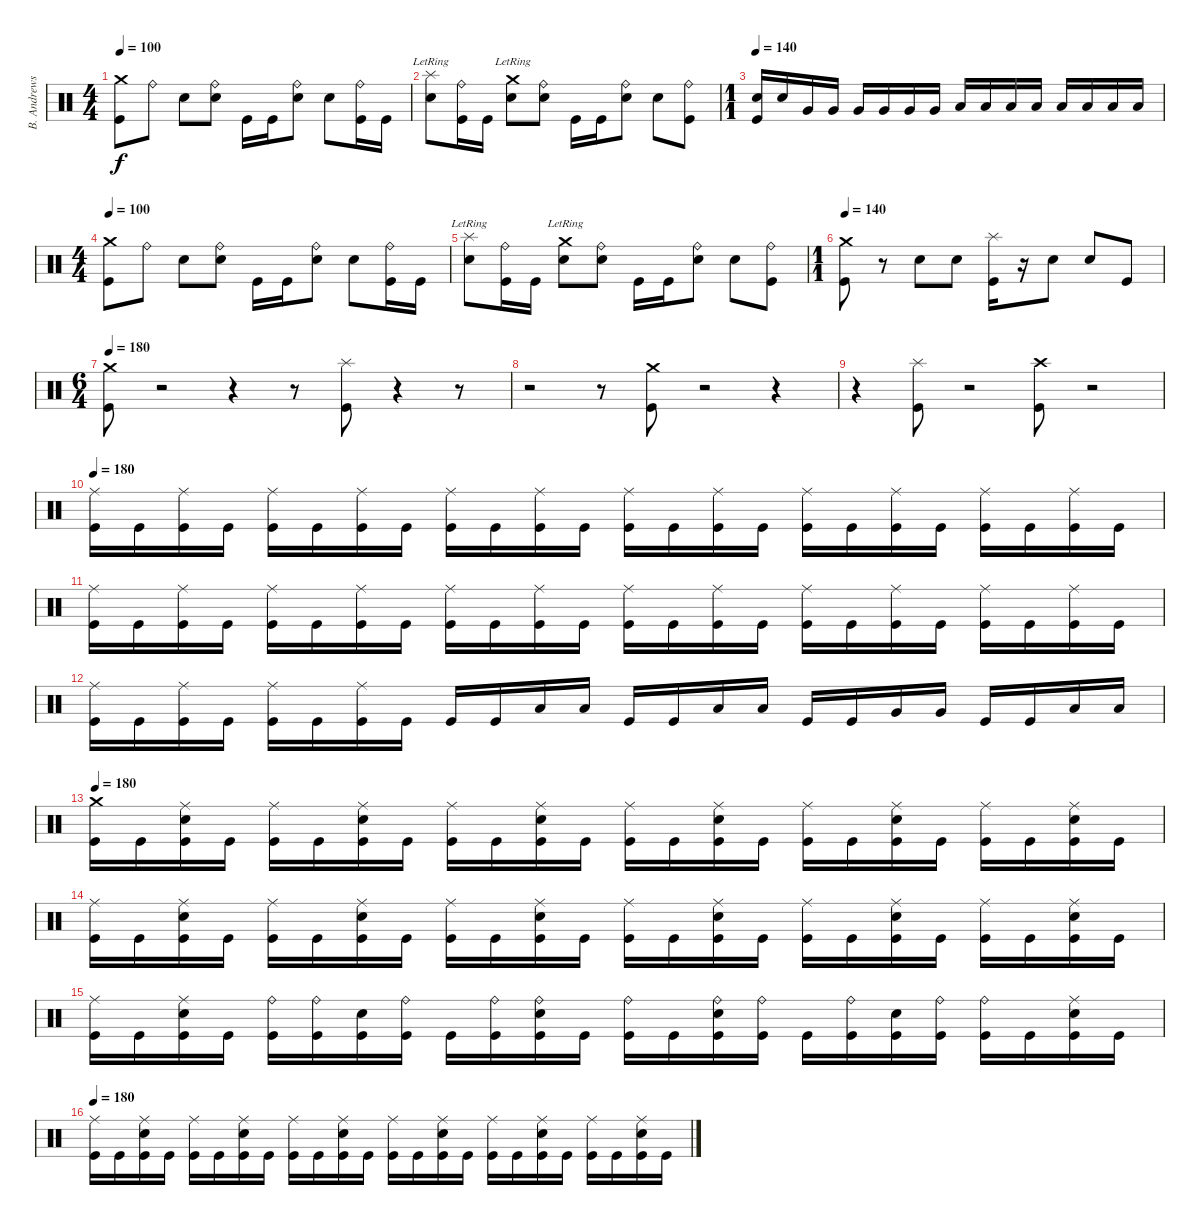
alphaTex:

\track ("B. Andrews" "B. Andrews") {instrument percussion}
\staff {score}
\articulation defaults
\ts (4 4)
\tempo 80
\tempo 100
\clef neutral
\ks c
("Crash medium (hit)" "Kick (hit)").8{dy f} "Ride (bell)".8 "Electric Snare (hit)".8 ("Ride (bell)" "Electric Snare (hit)").8 "Kick (hit)".16 "Kick (hit)".16 ("Ride (bell)" "Electric Snare (hit)").8 "Electric Snare (hit)".8 ("Ride (bell)" "Kick (hit)").16 "Kick (hit)".16 |
("Splash (hit)"{lr} "Electric Snare (hit)").8 ("Ride (bell)" "Kick (hit)").16 "Kick (hit)".16 ("Crash medium (hit)"{lr} "Electric Snare (hit)").8 ("Ride (bell)" "Electric Snare (hit)").8 "Kick (hit)".16 "Kick (hit)".16 ("Ride (bell)" "Electric Snare (hit)").8 "Electric Snare (hit)".8 ("Ride (bell)" "Kick (hit)").8 |
\ts (1 1)
\tempo 140
("Electric Snare (hit)" "Kick (hit)").16 "Electric Snare (hit)".16 "Very Low Tom (hit)".16 "Very Low Tom (hit)".16 "Very Low Tom (hit)".16 "Very Low Tom (hit)".16 "Very Low Tom (hit)".16 "Very Low Tom (hit)".16 "Low Floor Tom (hit)".16 "Low Floor Tom (hit)".16 "Low Floor Tom (hit)".16 "Low Floor Tom (hit)".16 "Low Floor Tom (hit)".16 "Low Floor Tom (hit)".16 "Low Floor Tom (hit)".16 "Low Floor Tom (hit)".16 |
\ts (4 4)
\tempo 80
\tempo 100
("Crash medium (hit)" "Kick (hit)").8 "Ride (bell)".8 "Electric Snare (hit)".8 ("Ride (bell)" "Electric Snare (hit)").8 "Kick (hit)".16 "Kick (hit)".16 ("Ride (bell)" "Electric Snare (hit)").8 "Electric Snare (hit)".8 ("Ride (bell)" "Kick (hit)").16 "Kick (hit)".16 |
("Splash (hit)"{lr} "Electric Snare (hit)").8 ("Ride (bell)" "Kick (hit)").16 "Kick (hit)".16 ("Crash medium (hit)"{lr} "Electric Snare (hit)").8 ("Ride (bell)" "Electric Snare (hit)").8 "Kick (hit)".16 "Kick (hit)".16 ("Ride (bell)" "Electric Snare (hit)").8 "Electric Snare (hit)".8 ("Ride (bell)" "Kick (hit)").8 |
\ts (1 1)
\tempo 140
("Crash medium (hit)" "Kick (hit)").8 r.8 "Electric Snare (hit)".8 "Electric Snare (hit)".8 ("Splash (hit)" "Kick (hit)").16 r.16 "Electric Snare (hit)".8 "Electric Snare (hit)".8 "Kick (hit)".8 |
\ts (6 4)
\tempo 200
\tempo 180
("Crash medium (hit)" "Kick (hit)").8 r.2 r.4 r.8 ("Splash (hit)" "Kick (hit)").8 r.4 r.8 |
r.2 r.8 ("Crash medium (hit)" "Kick (hit)").8 r.2 r.4 |
r.4 ("Splash (hit)" "Kick (hit)").8 r.2 ("Crash high (hit)" "Kick (hit)").8 r.2 |
\tempo 180
("Ride (middle)" "Kick (hit)").16 "Kick (hit)".16 ("Ride (middle)" "Kick (hit)").16 "Kick (hit)".16 ("Ride (middle)" "Kick (hit)").16 "Kick (hit)".16 ("Ride (middle)" "Kick (hit)").16 "Kick (hit)".16 ("Ride (middle)" "Kick (hit)").16 "Kick (hit)".16 ("Ride (middle)" "Kick (hit)").16 "Kick (hit)".16 ("Ride (middle)" "Kick (hit)").16 "Kick (hit)".16 ("Ride (middle)" "Kick (hit)").16 "Kick (hit)".16 ("Ride (middle)" "Kick (hit)").16 "Kick (hit)".16 ("Ride (middle)" "Kick (hit)").16 "Kick (hit)".16 ("Ride (middle)" "Kick (hit)").16 "Kick (hit)".16 ("Ride (middle)" "Kick (hit)").16 "Kick (hit)".16 |
("Ride (middle)" "Kick (hit)").16 "Kick (hit)".16 ("Ride (middle)" "Kick (hit)").16 "Kick (hit)".16 ("Ride (middle)" "Kick (hit)").16 "Kick (hit)".16 ("Ride (middle)" "Kick (hit)").16 "Kick (hit)".16 ("Ride (middle)" "Kick (hit)").16 "Kick (hit)".16 ("Ride (middle)" "Kick (hit)").16 "Kick (hit)".16 ("Ride (middle)" "Kick (hit)").16 "Kick (hit)".16 ("Ride (middle)" "Kick (hit)").16 "Kick (hit)".16 ("Ride (middle)" "Kick (hit)").16 "Kick (hit)".16 ("Ride (middle)" "Kick (hit)").16 "Kick (hit)".16 ("Ride (middle)" "Kick (hit)").16 "Kick (hit)".16 ("Ride (middle)" "Kick (hit)").16 "Kick (hit)".16 |
("Ride (middle)" "Kick (hit)").16 "Kick (hit)".16 ("Ride (middle)" "Kick (hit)").16 "Kick (hit)".16 ("Ride (middle)" "Kick (hit)").16 "Kick (hit)".16 ("Ride (middle)" "Kick (hit)").16 "Kick (hit)".16 "Kick (hit)".16 "Kick (hit)".16 "Low Tom (hit)".16 "Low Tom (hit)".16 "Kick (hit)".16 "Kick (hit)".16 "Low Tom (hit)".16 "Low Tom (hit)".16 "Kick (hit)".16 "Kick (hit)".16 "Very Low Tom (hit)".16 "Very Low Tom (hit)".16 "Kick (hit)".16 "Kick (hit)".16 "Low Floor Tom (hit)".16 "Low Floor Tom (hit)".16 |
\tempo 180
("Crash medium (hit)" "Kick (hit)").16 "Kick (hit)".16 ("Ride (middle)" "Electric Snare (hit)" "Kick (hit)").16 "Kick (hit)".16 ("Ride (middle)" "Kick (hit)").16 "Kick (hit)".16 ("Ride (middle)" "Electric Snare (hit)" "Kick (hit)").16 "Kick (hit)".16 ("Ride (middle)" "Kick (hit)").16 "Kick (hit)".16 ("Ride (middle)" "Electric Snare (hit)" "Kick (hit)").16 "Kick (hit)".16 ("Ride (middle)" "Kick (hit)").16 "Kick (hit)".16 ("Ride (middle)" "Electric Snare (hit)" "Kick (hit)").16 "Kick (hit)".16 ("Ride (middle)" "Kick (hit)").16 "Kick (hit)".16 ("Ride (middle)" "Electric Snare (hit)" "Kick (hit)").16 "Kick (hit)".16 ("Ride (middle)" "Kick (hit)").16 "Kick (hit)".16 ("Ride (middle)" "Electric Snare (hit)" "Kick (hit)").16 "Kick (hit)".16 |
("Ride (middle)" "Kick (hit)").16 "Kick (hit)".16 ("Ride (middle)" "Electric Snare (hit)" "Kick (hit)").16 "Kick (hit)".16 ("Ride (middle)" "Kick (hit)").16 "Kick (hit)".16 ("Ride (middle)" "Electric Snare (hit)" "Kick (hit)").16 "Kick (hit)".16 ("Ride (middle)" "Kick (hit)").16 "Kick (hit)".16 ("Ride (middle)" "Electric Snare (hit)" "Kick (hit)").16 "Kick (hit)".16 ("Ride (middle)" "Kick (hit)").16 "Kick (hit)".16 ("Ride (middle)" "Electric Snare (hit)" "Kick (hit)").16 "Kick (hit)".16 ("Ride (middle)" "Kick (hit)").16 "Kick (hit)".16 ("Ride (middle)" "Electric Snare (hit)" "Kick (hit)").16 "Kick (hit)".16 ("Ride (middle)" "Kick (hit)").16 "Kick (hit)".16 ("Ride (middle)" "Electric Snare (hit)" "Kick (hit)").16 "Kick (hit)".16 |
("Ride (middle)" "Kick (hit)").16 "Kick (hit)".16 ("Ride (middle)" "Electric Snare (hit)" "Kick (hit)").16 "Kick (hit)".16 ("Ride (bell)" "Kick (hit)").16 ("Ride (bell)" "Kick (hit)").16 ("Electric Snare (hit)" "Kick (hit)").16 ("Ride (bell)" "Kick (hit)").16 "Kick (hit)".16 ("Ride (bell)" "Kick (hit)").16 ("Ride (bell)" "Electric Snare (hit)" "Kick (hit)").16 "Kick (hit)".16 ("Ride (bell)" "Kick (hit)").16 "Kick (hit)".16 ("Ride (bell)" "Electric Snare (hit)" "Kick (hit)").16 ("Ride (bell)" "Kick (hit)").16 "Kick (hit)".16 ("Ride (bell)" "Kick (hit)").16 ("Electric Snare (hit)" "Kick (hit)").16 ("Ride (bell)" "Kick (hit)").16 ("Ride (bell)" "Kick (hit)").16 "Kick (hit)".16 ("Ride (middle)" "Electric Snare (hit)" "Kick (hit)").16 "Kick (hit)".16 |
\tempo 180
("Ride (middle)" "Kick (hit)").16 "Kick (hit)".16 ("Ride (middle)" "Electric Snare (hit)" "Kick (hit)").16 "Kick (hit)".16 ("Ride (middle)" "Kick (hit)").16 "Kick (hit)".16 ("Ride (middle)" "Electric Snare (hit)" "Kick (hit)").16 "Kick (hit)".16 ("Ride (middle)" "Kick (hit)").16 "Kick (hit)".16 ("Ride (middle)" "Electric Snare (hit)" "Kick (hit)").16 "Kick (hit)".16 ("Ride (middle)" "Kick (hit)").16 "Kick (hit)".16 ("Ride (middle)" "Electric Snare (hit)" "Kick (hit)").16 "Kick (hit)".16 ("Ride (middle)" "Kick (hit)").16 "Kick (hit)".16 ("Ride (middle)" "Electric Snare (hit)" "Kick (hit)").16 "Kick (hit)".16 ("Ride (middle)" "Kick (hit)").16 "Kick (hit)".16 ("Ride (middle)" "Electric Snare (hit)" "Kick (hit)").16 "Kick (hit)".16
